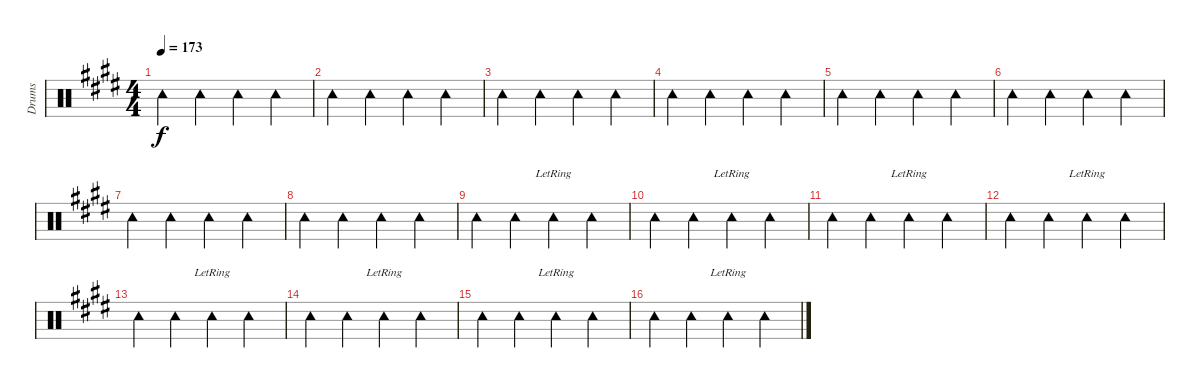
\track ("Drums" "Drums") {instrument percussion}
\staff {score}
\articulation defaults
\ts (4 4)
\tempo 173
\clef neutral
\ks e "Tambourine (hit)".4{dy f} "Tambourine (hit)".4 "Tambourine (hit)".4 "Tambourine (hit)".4
|
"Tambourine (hit)".4 "Tambourine (hit)".4 "Tambourine (hit)".4 "Tambourine (hit)".4 |
"Tambourine (hit)".4 "Tambourine (hit)".4 "Tambourine (hit)".4 "Tambourine (hit)".4 |
"Tambourine (hit)".4 "Tambourine (hit)".4 "Tambourine (hit)".4 "Tambourine (hit)".4 |
"Tambourine (hit)".4 "Tambourine (hit)".4 "Tambourine (hit)".4 "Tambourine (hit)".4 |
"Tambourine (hit)".4 "Tambourine (hit)".4 "Tambourine (hit)".4 "Tambourine (hit)".4 |
"Tambourine (hit)".4 "Tambourine (hit)".4 "Tambourine (hit)".4 "Tambourine (hit)".4 |
"Tambourine (hit)".4 "Tambourine (hit)".4 "Tambourine (hit)".4 "Tambourine (hit)".4 |
"Tambourine (hit)".4 "Tambourine (hit)".4 "Tambourine (hit)"{lr}.4 "Tambourine (hit)".4 |
"Tambourine (hit)".4 "Tambourine (hit)".4 "Tambourine (hit)"{lr}.4 "Tambourine (hit)".4 |
"Tambourine (hit)".4 "Tambourine (hit)".4 "Tambourine (hit)"{lr}.4 "Tambourine (hit)".4 |
"Tambourine (hit)".4 "Tambourine (hit)".4 "Tambourine (hit)"{lr}.4 "Tambourine (hit)".4 |
"Tambourine (hit)".4 "Tambourine (hit)".4 "Tambourine (hit)"{lr}.4 "Tambourine (hit)".4 |
"Tambourine (hit)".4 "Tambourine (hit)".4 "Tambourine (hit)"{lr}.4 "Tambourine (hit)".4 |
"Tambourine (hit)".4 "Tambourine (hit)".4 "Tambourine (hit)"{lr}.4 "Tambourine (hit)".4 |
"Tambourine (hit)".4 "Tambourine (hit)".4 "Tambourine (hit)"{lr}.4 "Tambourine (hit)".4
